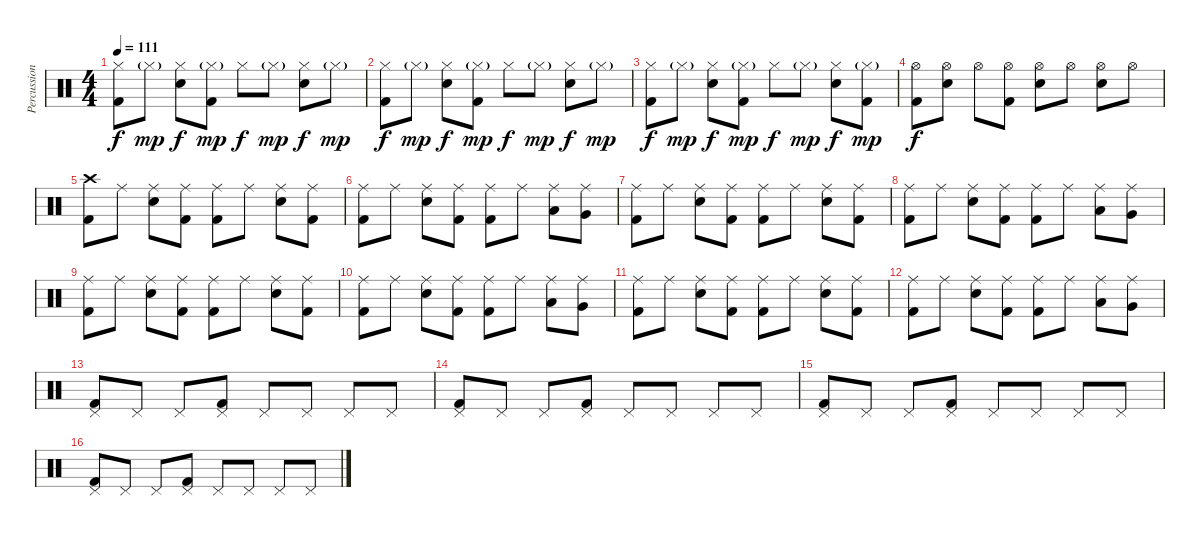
\track ("Percussion" "Percussion") {instrument percussion}
\staff {score}
\articulation defaults
\ts (4 4)
\tempo 111
\clef neutral
\ks c
("Hi-Hat (closed)" "Kick (hit) 2").8{dy f} "Hi-Hat (closed)"{g}.8{dy mp} ("Hi-Hat (closed)" "Electric Snare (hit)").8{dy f} ("Hi-Hat (closed)"{g} "Kick (hit) 2").8{dy mp} "Hi-Hat (closed)".8{dy f} "Hi-Hat (closed)"{g}.8{dy mp} ("Hi-Hat (closed)" "Electric Snare (hit)").8{dy f} "Hi-Hat (closed)"{g}.8{dy mp} |
("Hi-Hat (closed)" "Kick (hit) 2").8{dy f} "Hi-Hat (closed)"{g}.8{dy mp} ("Hi-Hat (closed)" "Electric Snare (hit)").8{dy f} ("Hi-Hat (closed)"{g} "Kick (hit) 2").8{dy mp} "Hi-Hat (closed)".8{dy f} "Hi-Hat (closed)"{g}.8{dy mp} ("Hi-Hat (closed)" "Electric Snare (hit)").8{dy f} "Hi-Hat (closed)"{g}.8{dy mp} |
("Hi-Hat (closed)" "Kick (hit) 2").8{dy f} "Hi-Hat (closed)"{g}.8{dy mp} ("Hi-Hat (closed)" "Electric Snare (hit)").8{dy f} ("Hi-Hat (closed)"{g} "Kick (hit) 2").8{dy mp} "Hi-Hat (closed)".8{dy f} "Hi-Hat (closed)"{g}.8{dy mp} ("Hi-Hat (closed)" "Electric Snare (hit)").8{dy f} ("Hi-Hat (closed)"{g} "Kick (hit) 2").8{dy mp} |
("Hi-Hat (open)" "Kick (hit) 2").8{dy f} ("Hi-Hat (open)" "Electric Snare (hit)").8 "Hi-Hat (open)".8 ("Hi-Hat (open)" "Kick (hit) 2").8 ("Hi-Hat (open)" "Electric Snare (hit)").8 "Hi-Hat (open)".8 ("Hi-Hat (open)" "Electric Snare (hit)").8 "Hi-Hat (open)".8 |
("Crash high (hit)" "Kick (hit) 2").8 "Ride (middle)".8 ("Ride (middle)" "Electric Snare (hit)").8 ("Ride (middle)" "Kick (hit) 2").8 ("Ride (middle)" "Kick (hit) 2").8 "Ride (middle)".8 ("Ride (middle)" "Electric Snare (hit)").8 ("Ride (middle)" "Kick (hit) 2").8 |
("Ride (middle)" "Kick (hit) 2").8 "Ride (middle)".8 ("Ride (middle)" "Electric Snare (hit)").8 ("Ride (middle)" "Kick (hit) 2").8 ("Ride (middle)" "Kick (hit) 2").8 "Ride (middle)".8 ("Ride (middle)" "Low Tom (hit)").8 ("Ride (middle)" "Very Low Tom (hit)").8 |
("Ride (middle)" "Kick (hit) 2").8 "Ride (middle)".8 ("Ride (middle)" "Electric Snare (hit)").8 ("Ride (middle)" "Kick (hit) 2").8 ("Ride (middle)" "Kick (hit) 2").8 "Ride (middle)".8 ("Ride (middle)" "Electric Snare (hit)").8 ("Ride (middle)" "Kick (hit) 2").8 |
("Ride (middle)" "Kick (hit) 2").8 "Ride (middle)".8 ("Ride (middle)" "Electric Snare (hit)").8 ("Ride (middle)" "Kick (hit) 2").8 ("Ride (middle)" "Kick (hit) 2").8 "Ride (middle)".8 ("Ride (middle)" "Low Tom (hit)").8 ("Ride (middle)" "Very Low Tom (hit)").8 |
("Ride (middle)" "Kick (hit) 2").8 "Ride (middle)".8 ("Ride (middle)" "Electric Snare (hit)").8 ("Ride (middle)" "Kick (hit) 2").8 ("Ride (middle)" "Kick (hit) 2").8 "Ride (middle)".8 ("Ride (middle)" "Electric Snare (hit)").8 ("Ride (middle)" "Kick (hit) 2").8 |
("Ride (middle)" "Kick (hit) 2").8 "Ride (middle)".8 ("Ride (middle)" "Electric Snare (hit)").8 ("Ride (middle)" "Kick (hit) 2").8 ("Ride (middle)" "Kick (hit) 2").8 "Ride (middle)".8 ("Ride (middle)" "Low Tom (hit)").8 ("Ride (middle)" "Very Low Tom (hit)").8 |
("Ride (middle)" "Kick (hit) 2").8 "Ride (middle)".8 ("Ride (middle)" "Electric Snare (hit)").8 ("Ride (middle)" "Kick (hit) 2").8 ("Ride (middle)" "Kick (hit) 2").8 "Ride (middle)".8 ("Ride (middle)" "Electric Snare (hit)").8 ("Ride (middle)" "Kick (hit) 2").8 |
("Ride (middle)" "Kick (hit) 2").8 "Ride (middle)".8 ("Ride (middle)" "Electric Snare (hit)").8 ("Ride (middle)" "Kick (hit) 2").8 ("Ride (middle)" "Kick (hit) 2").8 "Ride (middle)".8 ("Ride (middle)" "Low Tom (hit)").8 ("Ride (middle)" "Very Low Tom (hit)").8 |
("Pedal Hi-Hat (hit)" "Kick (hit) 2").8 "Pedal Hi-Hat (hit)".8 "Pedal Hi-Hat (hit)".8 ("Pedal Hi-Hat (hit)" "Kick (hit) 2").8 "Pedal Hi-Hat (hit)".8 "Pedal Hi-Hat (hit)".8 "Pedal Hi-Hat (hit)".8 "Pedal Hi-Hat (hit)".8 |
("Pedal Hi-Hat (hit)" "Kick (hit) 2").8 "Pedal Hi-Hat (hit)".8 "Pedal Hi-Hat (hit)".8 ("Pedal Hi-Hat (hit)" "Kick (hit) 2").8 "Pedal Hi-Hat (hit)".8 "Pedal Hi-Hat (hit)".8 "Pedal Hi-Hat (hit)".8 "Pedal Hi-Hat (hit)".8 |
("Pedal Hi-Hat (hit)" "Kick (hit) 2").8 "Pedal Hi-Hat (hit)".8 "Pedal Hi-Hat (hit)".8 ("Pedal Hi-Hat (hit)" "Kick (hit) 2").8 "Pedal Hi-Hat (hit)".8 "Pedal Hi-Hat (hit)".8 "Pedal Hi-Hat (hit)".8 "Pedal Hi-Hat (hit)".8 |
("Pedal Hi-Hat (hit)" "Kick (hit) 2").8 "Pedal Hi-Hat (hit)".8 "Pedal Hi-Hat (hit)".8 ("Pedal Hi-Hat (hit)" "Kick (hit) 2").8 "Pedal Hi-Hat (hit)".8 "Pedal Hi-Hat (hit)".8 "Pedal Hi-Hat (hit)".8 "Pedal Hi-Hat (hit)".8
